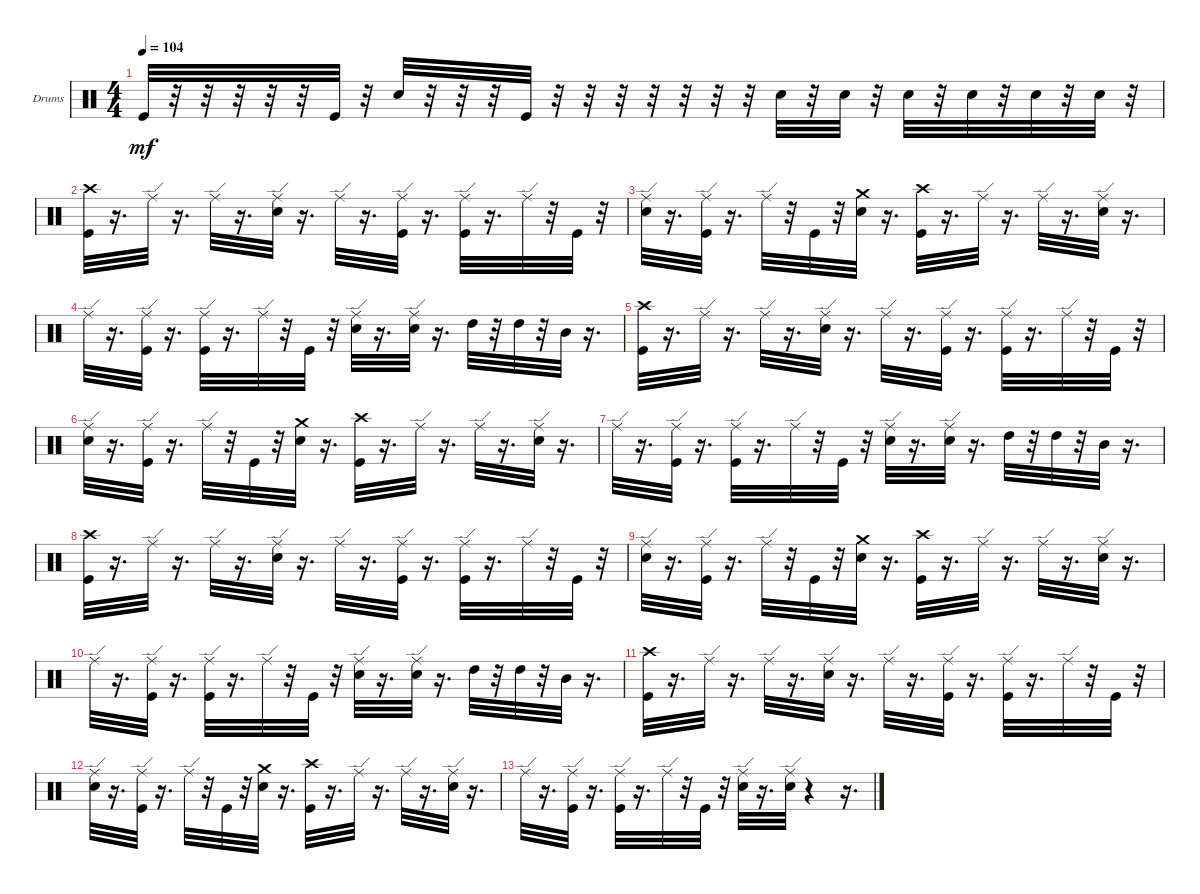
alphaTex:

\bracketExtendMode groupsimilarinstruments
\firstSystemTrackNameOrientation horizontal
\otherSystemsTrackNameOrientation horizontal
\track ("" "Drums") {instrument percussion}
\staff {score}
\articulation defaults
\ts (4 4)
\tempo 104
\clef neutral
\ks c "Kick (hit)".32{dy mf}
r.32 r.32 r.32 r.32 r.32 "Kick (hit)".32 r.32 "Snare (hit) 2".32 r.32 r.32 r.32 "Kick (hit)".32 r.32 r.32 r.32 r.32 r.32 r.32 r.32 "Snare (hit) 2".32 r.32 "Snare (hit) 2".32 r.32 "Snare (hit) 2".32 r.32 "Snare (hit) 2".32 r.32 "Snare (hit) 2".32 r.32 "Snare (hit) 2".32 r.32 |
("Crash high (hit)" "Kick (hit)").32 r.16{d} "Ride (edge)".32 r.16{d} "Ride (edge)".32 r.16{d} ("Ride (edge)" "Snare (hit) 2").32 r.16{d} "Ride (edge)".32 r.16{d} ("Kick (hit)" "Ride (edge)").32 r.16{d} ("Kick (hit)" "Ride (edge)").32 r.16{d} "Ride (edge)".32 r.32 "Kick (hit)".32 r.32 |
("Ride (edge)" "Snare (hit) 2").32 r.16{d} ("Kick (hit)" "Ride (edge)").32 r.16{d} "Ride (edge)".32 r.32 "Kick (hit)".32 r.32 ("Snare (hit) 2" "Crash medium (hit)").32 r.16{d} ("Crash high (hit)" "Kick (hit)").32 r.16{d} "Ride (edge)".32 r.16{d} "Ride (edge)".32 r.16{d} ("Snare (hit) 2" "Ride (edge)").32 r.16{d} |
"Ride (edge)".32 r.16{d} ("Kick (hit)" "Ride (edge)").32 r.16{d} ("Kick (hit)" "Ride (edge)").32 r.16{d} "Ride (edge)".32 r.32 "Kick (hit)".32 r.32 ("Snare (hit) 2" "Ride (edge)").32 r.16{d} ("Snare (hit) 2" "Ride (edge)").32 r.16{d} "High Tom (hit)".32 r.32 "High Tom (hit)".32 r.32 "Mid Tom (hit)".32 r.16{d} |
("Crash high (hit)" "Kick (hit)").32 r.16{d} "Ride (edge)".32 r.16{d} "Ride (edge)".32 r.16{d} ("Ride (edge)" "Snare (hit) 2").32 r.16{d} "Ride (edge)".32 r.16{d} ("Kick (hit)" "Ride (edge)").32 r.16{d} ("Kick (hit)" "Ride (edge)").32 r.16{d} "Ride (edge)".32 r.32 "Kick (hit)".32 r.32 |
("Ride (edge)" "Snare (hit) 2").32 r.16{d} ("Kick (hit)" "Ride (edge)").32 r.16{d} "Ride (edge)".32 r.32 "Kick (hit)".32 r.32 ("Snare (hit) 2" "Crash medium (hit)").32 r.16{d} ("Crash high (hit)" "Kick (hit)").32 r.16{d} "Ride (edge)".32 r.16{d} "Ride (edge)".32 r.16{d} ("Snare (hit) 2" "Ride (edge)").32 r.16{d} |
"Ride (edge)".32 r.16{d} ("Kick (hit)" "Ride (edge)").32 r.16{d} ("Kick (hit)" "Ride (edge)").32 r.16{d} "Ride (edge)".32 r.32 "Kick (hit)".32 r.32 ("Snare (hit) 2" "Ride (edge)").32 r.16{d} ("Snare (hit) 2" "Ride (edge)").32 r.16{d} "High Tom (hit)".32 r.32 "High Tom (hit)".32 r.32 "Mid Tom (hit)".32 r.16{d} |
("Crash high (hit)" "Kick (hit)").32 r.16{d} "Ride (edge)".32 r.16{d} "Ride (edge)".32 r.16{d} ("Ride (edge)" "Snare (hit) 2").32 r.16{d} "Ride (edge)".32 r.16{d} ("Kick (hit)" "Ride (edge)").32 r.16{d} ("Kick (hit)" "Ride (edge)").32 r.16{d} "Ride (edge)".32 r.32 "Kick (hit)".32 r.32 |
("Ride (edge)" "Snare (hit) 2").32 r.16{d} ("Kick (hit)" "Ride (edge)").32 r.16{d} "Ride (edge)".32 r.32 "Kick (hit)".32 r.32 ("Snare (hit) 2" "Crash medium (hit)").32 r.16{d} ("Crash high (hit)" "Kick (hit)").32 r.16{d} "Ride (edge)".32 r.16{d} "Ride (edge)".32 r.16{d} ("Snare (hit) 2" "Ride (edge)").32 r.16{d} |
"Ride (edge)".32 r.16{d} ("Kick (hit)" "Ride (edge)").32 r.16{d} ("Kick (hit)" "Ride (edge)").32 r.16{d} "Ride (edge)".32 r.32 "Kick (hit)".32 r.32 ("Snare (hit) 2" "Ride (edge)").32 r.16{d} ("Snare (hit) 2" "Ride (edge)").32 r.16{d} "High Tom (hit)".32 r.32 "High Tom (hit)".32 r.32 "Mid Tom (hit)".32 r.16{d} |
("Crash high (hit)" "Kick (hit)").32 r.16{d} "Ride (edge)".32 r.16{d} "Ride (edge)".32 r.16{d} ("Ride (edge)" "Snare (hit) 2").32 r.16{d} "Ride (edge)".32 r.16{d} ("Kick (hit)" "Ride (edge)").32 r.16{d} ("Kick (hit)" "Ride (edge)").32 r.16{d} "Ride (edge)".32 r.32 "Kick (hit)".32 r.32 |
("Ride (edge)" "Snare (hit) 2").32 r.16{d} ("Kick (hit)" "Ride (edge)").32 r.16{d} "Ride (edge)".32 r.32 "Kick (hit)".32 r.32 ("Snare (hit) 2" "Crash medium (hit)").32 r.16{d} ("Crash high (hit)" "Kick (hit)").32 r.16{d} "Ride (edge)".32 r.16{d} "Ride (edge)".32 r.16{d} ("Snare (hit) 2" "Ride (edge)").32 r.16{d} |
"Ride (edge)".32 r.16{d} ("Kick (hit)" "Ride (edge)").32 r.16{d} ("Kick (hit)" "Ride (edge)").32 r.16{d} "Ride (edge)".32 r.32 "Kick (hit)".32 r.32 ("Snare (hit) 2" "Ride (edge)").32 r.16{d} ("Snare (hit) 2" "Ride (edge)").32 r.4 r.16{d}
